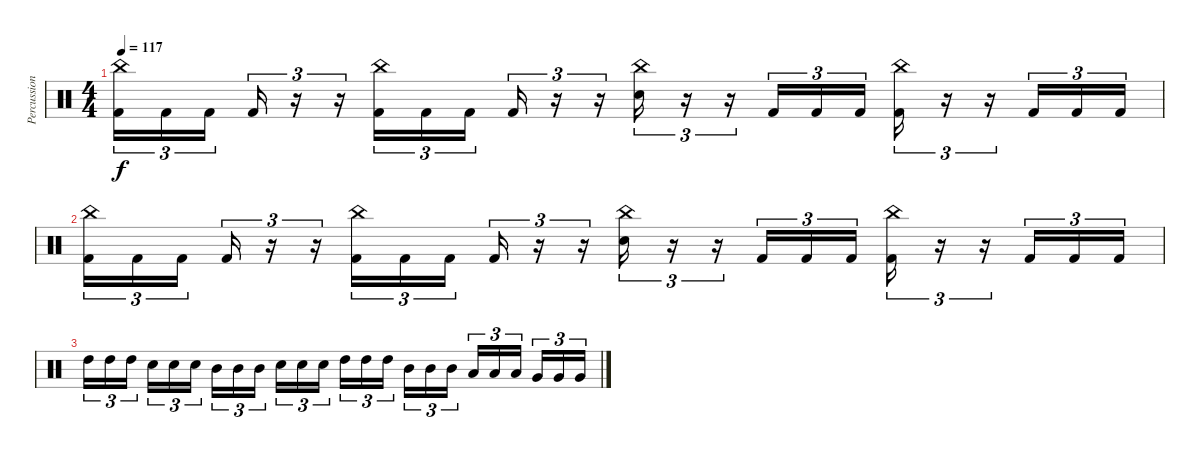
\track ("Percussion" "Percussion") {instrument percussion}
\staff {score}
\articulation defaults
\ts (4 4)
\tempo 117
\clef neutral
\ks c
("China (hit)" "Kick (hit) 2").16{tu (3 2) dy f} "Kick (hit) 2".16{tu (3 2)} "Kick (hit) 2".16{tu (3 2) beam splitsecondary} "Kick (hit) 2".16{tu (3 2)} r.16{tu (3 2)} r.16{tu (3 2)} ("China (hit)" "Kick (hit) 2").16{tu (3 2)} "Kick (hit) 2".16{tu (3 2)} "Kick (hit) 2".16{tu (3 2) beam splitsecondary} "Kick (hit) 2".16{tu (3 2)} r.16{tu (3 2)} r.16{tu (3 2)} ("China (hit)" "Electric Snare (hit)").16{tu (3 2)} r.16{tu (3 2)} r.16{tu (3 2)} "Kick (hit) 2".16{tu (3 2)} "Kick (hit) 2".16{tu (3 2)} "Kick (hit) 2".16{tu (3 2)} ("China (hit)" "Kick (hit) 2").16{tu (3 2)} r.16{tu (3 2)} r.16{tu (3 2)} "Kick (hit) 2".16{tu (3 2)} "Kick (hit) 2".16{tu (3 2)} "Kick (hit) 2".16{tu (3 2)} |
("China (hit)" "Kick (hit) 2").16{tu (3 2)} "Kick (hit) 2".16{tu (3 2)} "Kick (hit) 2".16{tu (3 2) beam splitsecondary} "Kick (hit) 2".16{tu (3 2)} r.16{tu (3 2)} r.16{tu (3 2)} ("China (hit)" "Kick (hit) 2").16{tu (3 2)} "Kick (hit) 2".16{tu (3 2)} "Kick (hit) 2".16{tu (3 2) beam splitsecondary} "Kick (hit) 2".16{tu (3 2)} r.16{tu (3 2)} r.16{tu (3 2)} ("China (hit)" "Electric Snare (hit)").16{tu (3 2)} r.16{tu (3 2)} r.16{tu (3 2)} "Kick (hit) 2".16{tu (3 2)} "Kick (hit) 2".16{tu (3 2)} "Kick (hit) 2".16{tu (3 2)} ("China (hit)" "Kick (hit) 2").16{tu (3 2)} r.16{tu (3 2)} r.16{tu (3 2)} "Kick (hit) 2".16{tu (3 2)} "Kick (hit) 2".16{tu (3 2)} "Kick (hit) 2".16{tu (3 2)} |
"High Tom (hit)".16{tu (3 2)} "High Tom (hit)".16{tu (3 2)} "High Tom (hit)".16{tu (3 2) beam splitsecondary} "Electric Snare (hit)".16{tu (3 2)} "Electric Snare (hit)".16{tu (3 2)} "Electric Snare (hit)".16{tu (3 2)} "Mid Tom (hit)".16{tu (3 2)} "Mid Tom (hit)".16{tu (3 2)} "Mid Tom (hit)".16{tu (3 2) beam splitsecondary} "Electric Snare (hit)".16{tu (3 2)} "Electric Snare (hit)".16{tu (3 2)} "Electric Snare (hit)".16{tu (3 2)} "High Tom (hit)".16{tu (3 2)} "High Tom (hit)".16{tu (3 2)} "High Tom (hit)".16{tu (3 2) beam splitsecondary} "Mid Tom (hit)".16{tu (3 2)} "Mid Tom (hit)".16{tu (3 2)} "Mid Tom (hit)".16{tu (3 2)} "Low Tom (hit)".16{tu (3 2)} "Low Tom (hit)".16{tu (3 2)} "Low Tom (hit)".16{tu (3 2) beam splitsecondary} "Very Low Tom (hit)".16{tu (3 2)} "Very Low Tom (hit)".16{tu (3 2)} "Very Low Tom (hit)".16{tu (3 2)}
